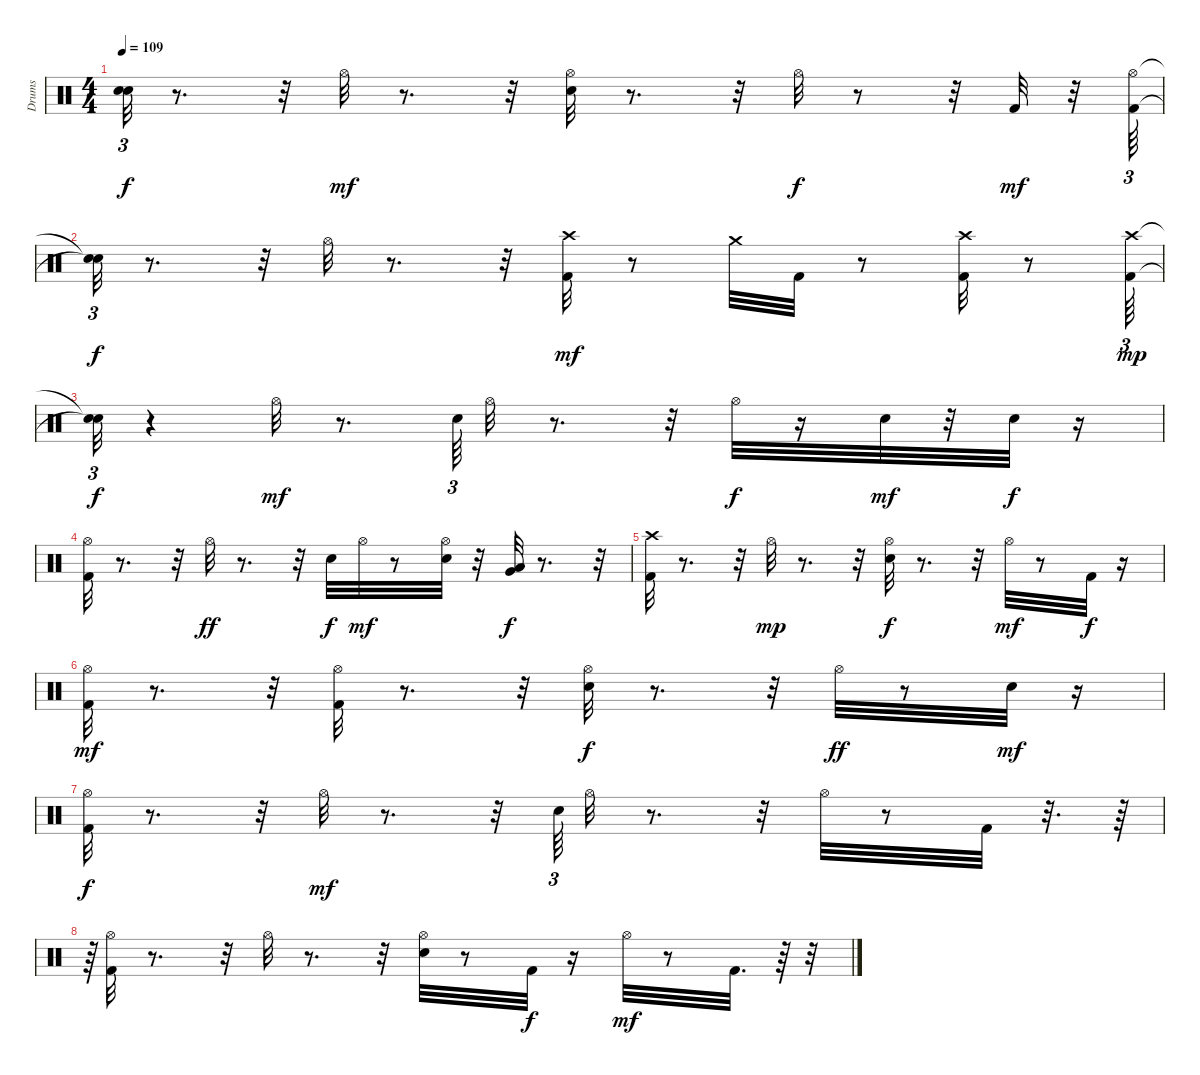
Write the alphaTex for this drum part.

\track ("Drums" "Drums") {solo instrument percussion}
\staff {score}
\articulation defaults
\ts (4 4)
\tempo 109
\clef neutral
\ks c
("Snare (hit)"{t} "Snare (hit)"{t}).32{tu (3 2) dy f} r.8{d} r.32 "Hi-Hat (open)".32{dy mf} r.8{d} r.32 ("Electric Snare (hit)" "Hi-Hat (open)").32 r.8{d} r.32 "Hi-Hat (open)".32{dy f} r.8 r.32 "Kick (hit) 2".32{dy mf} r.32 ("Kick (hit) 2" "Hi-Hat (open)").64{tu (3 2)} |
("Snare (hit)"{t} "Snare (hit)"{t}).32{tu (3 2) dy f} r.8{d} r.32 "Hi-Hat (open)".32 r.8{d} r.32 ("Crash high (hit)" "Kick (hit) 2").32{dy mf} r.8 "Crash medium (hit)".32 "Kick (hit) 2".32 r.8 ("Kick (hit) 2" "Crash high (hit)").32 r.8 ("Kick (hit) 2" "Crash high (hit)").64{tu (3 2) dy mp} |
("Snare (hit)"{t} "Snare (hit)"{t}).32{tu (3 2) dy f} r.4 "Hi-Hat (open)".32{dy mf} r.8{d} "Electric Snare (hit)".64{tu (3 2)} "Hi-Hat (open)".32 r.8{d} r.32 "Hi-Hat (open)".32{dy f} r.16 "Electric Snare (hit)".32{dy mf} r.32 "Electric Snare (hit)".32{dy f} r.16 |
("Hi-Hat (open)" "Kick (hit) 2").32 r.8{d} r.32 "Hi-Hat (open)".32{dy ff} r.8{d} r.32 "Electric Snare (hit)".32{dy f} "Hi-Hat (open)".32{dy mf} r.8 ("Electric Snare (hit)" "Hi-Hat (open)").32 r.32 ("Very Low Tom (hit)" "Low Floor Tom (hit)").32{dy f} r.8{d} r.32 |
("Kick (hit) 2" "Crash high (hit)").32 r.8{d} r.32 "Hi-Hat (open)".32{dy mp} r.8{d} r.32 ("Electric Snare (hit)" "Hi-Hat (open)").32{dy f} r.8{d} r.32 "Hi-Hat (open)".32{dy mf} r.8 "Kick (hit) 2".32{dy f} r.16 |
("Kick (hit) 2" "Hi-Hat (open)").32{dy mf} r.8{d} r.32 ("Kick (hit) 2" "Hi-Hat (open)").32 r.8{d} r.32 ("Hi-Hat (open)" "Electric Snare (hit)").32{dy f} r.8{d} r.32 "Hi-Hat (open)".32{dy ff} r.8 "Electric Snare (hit)".32{dy mf} r.16 |
("Hi-Hat (open)" "Kick (hit) 2").32{dy f} r.8{d} r.32 "Hi-Hat (open)".32{dy mf} r.8{d} r.32 "Electric Snare (hit)".64{tu (3 2)} "Hi-Hat (open)".32 r.8{d} r.32 "Hi-Hat (open)".32 r.8 "Kick (hit) 2".32 r.32{d} r.64 |
r.64{tu (3 2)} ("Kick (hit) 2" "Hi-Hat (open)").32 r.8{d} r.32 "Hi-Hat (open)".32 r.8{d} r.32 ("Electric Snare (hit)" "Hi-Hat (open)").32 r.8 "Kick (hit) 2".32{dy f} r.16 "Hi-Hat (open)".32{dy mf} r.8 "Kick (hit) 2".32{d} r.64 r.32
